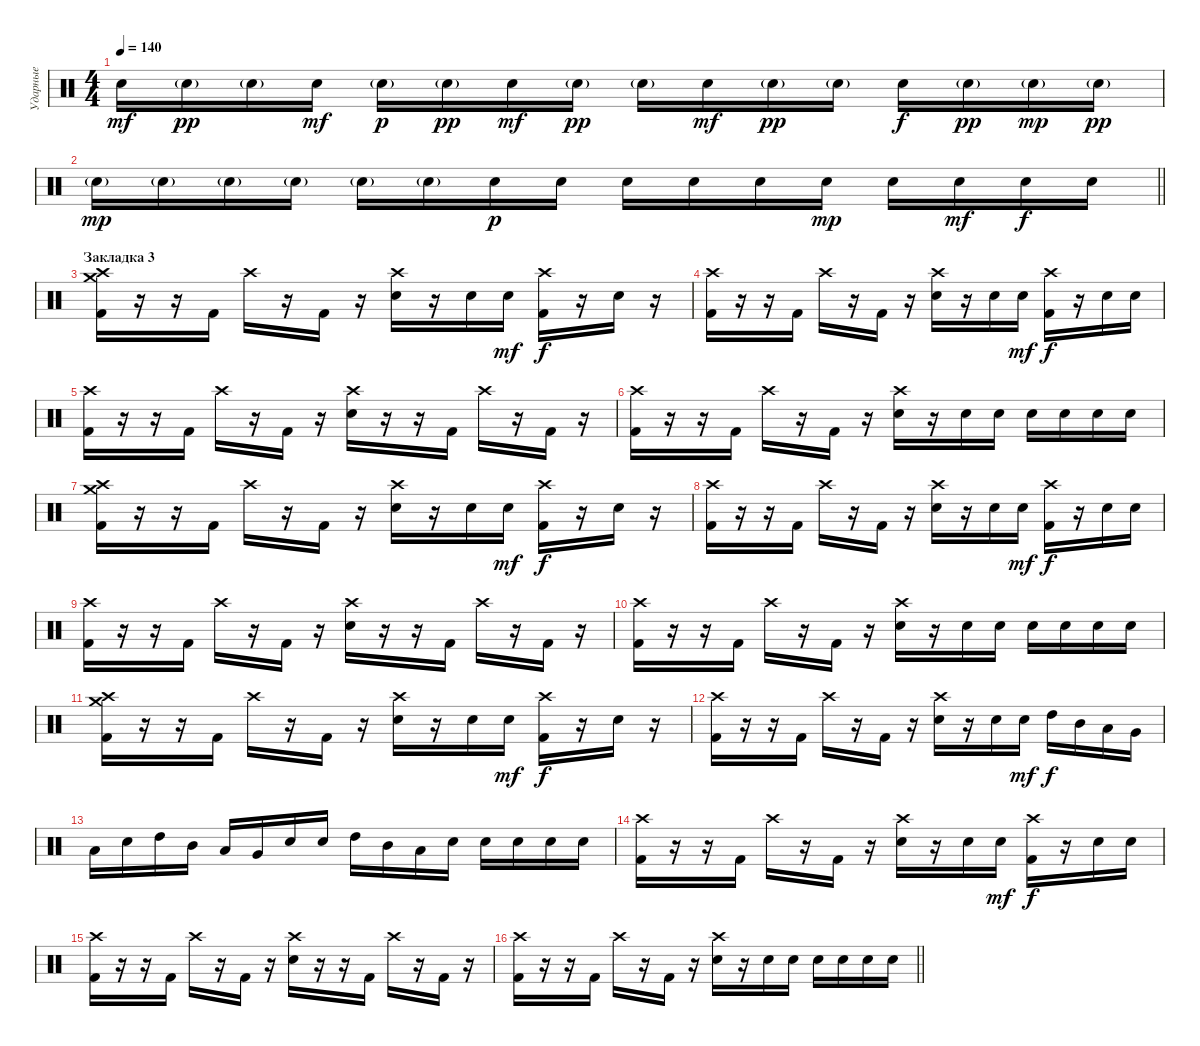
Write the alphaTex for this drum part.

\track ("Ударные" "Ударные") {instrument percussion}
\staff {score}
\articulation defaults
\ts (4 4)
\tempo 140
\clef neutral
\ks c "Electric Snare (hit)".16{dy mf} "Electric Snare (hit)"{g}.16{dy pp} "Electric Snare (hit)"{g}.16 "Electric Snare (hit)".16{dy mf} "Electric Snare (hit)"{g}.16{dy p} "Electric Snare (hit)"{g}.16{dy pp} "Electric Snare (hit)".16{dy mf} "Electric Snare (hit)"{g}.16{dy pp} "Electric Snare (hit)"{g}.16 "Electric Snare (hit)".16{dy mf} "Electric Snare (hit)"{g}.16{dy pp} "Electric Snare (hit)"{g}.16 "Electric Snare (hit)".16{dy f} "Electric Snare (hit)"{g}.16{dy pp} "Electric Snare (hit)"{g}.16{dy mp} "Electric Snare (hit)"{g}.16{dy pp}
|
\barLineRight lightlight "Electric Snare (hit)"{g}.16{dy mp} "Electric Snare (hit)"{g}.16 "Electric Snare (hit)"{g}.16 "Electric Snare (hit)"{g}.16 "Electric Snare (hit)"{g}.16 "Electric Snare (hit)"{g}.16 "Electric Snare (hit)".16{dy p} "Electric Snare (hit)".16 "Electric Snare (hit)".16 "Electric Snare (hit)".16 "Electric Snare (hit)".16 "Electric Snare (hit)".16{dy mp} "Electric Snare (hit)".16 "Electric Snare (hit)".16{dy mf} "Electric Snare (hit)".16{dy f} "Electric Snare (hit)".16
|
\section ("" "Закладка 3")
("Crash high (hit)" "Crash medium (hit)" "Kick (hit) 2").16 r.16 r.16 "Kick (hit) 2".16 "Crash high (hit)".16 r.16 "Kick (hit) 2".16 r.16 ("Crash high (hit)" "Electric Snare (hit)").16 r.16 "Electric Snare (hit)".16 "Electric Snare (hit)".16{dy mf} ("Crash high (hit)" "Kick (hit) 2").16{dy f} r.16 "Electric Snare (hit)".16 r.16 |
("Crash high (hit)" "Kick (hit) 2").16 r.16 r.16 "Kick (hit) 2".16 "Crash high (hit)".16 r.16 "Kick (hit) 2".16 r.16 ("Crash high (hit)" "Electric Snare (hit)").16 r.16 "Electric Snare (hit)".16 "Electric Snare (hit)".16{dy mf} ("Crash high (hit)" "Kick (hit) 2").16{dy f} r.16 "Electric Snare (hit)".16 "Electric Snare (hit)".16 |
("Crash high (hit)" "Kick (hit) 2").16 r.16 r.16 "Kick (hit) 2".16 "Crash high (hit)".16 r.16 "Kick (hit) 2".16 r.16 ("Crash high (hit)" "Electric Snare (hit)").16 r.16 r.16 "Kick (hit) 2".16 "Crash high (hit)".16 r.16 "Kick (hit) 2".16 r.16 |
("Crash high (hit)" "Kick (hit) 2").16 r.16 r.16 "Kick (hit) 2".16 "Crash high (hit)".16 r.16 "Kick (hit) 2".16 r.16 ("Crash high (hit)" "Electric Snare (hit)").16 r.16 "Electric Snare (hit)".16 "Electric Snare (hit)".16 "Electric Snare (hit)".16 "Electric Snare (hit)".16 "Electric Snare (hit)".16 "Electric Snare (hit)".16 |
("Crash high (hit)" "Crash medium (hit)" "Kick (hit) 2").16 r.16 r.16 "Kick (hit) 2".16 "Crash high (hit)".16 r.16 "Kick (hit) 2".16 r.16 ("Crash high (hit)" "Electric Snare (hit)").16 r.16 "Electric Snare (hit)".16 "Electric Snare (hit)".16{dy mf} ("Crash high (hit)" "Kick (hit) 2").16{dy f} r.16 "Electric Snare (hit)".16 r.16 |
("Crash high (hit)" "Kick (hit) 2").16 r.16 r.16 "Kick (hit) 2".16 "Crash high (hit)".16 r.16 "Kick (hit) 2".16 r.16 ("Crash high (hit)" "Electric Snare (hit)").16 r.16 "Electric Snare (hit)".16 "Electric Snare (hit)".16{dy mf} ("Crash high (hit)" "Kick (hit) 2").16{dy f} r.16 "Electric Snare (hit)".16 "Electric Snare (hit)".16 |
("Crash high (hit)" "Kick (hit) 2").16 r.16 r.16 "Kick (hit) 2".16 "Crash high (hit)".16 r.16 "Kick (hit) 2".16 r.16 ("Crash high (hit)" "Electric Snare (hit)").16 r.16 r.16 "Kick (hit) 2".16 "Crash high (hit)".16 r.16 "Kick (hit) 2".16 r.16 |
("Crash high (hit)" "Kick (hit) 2").16 r.16 r.16 "Kick (hit) 2".16 "Crash high (hit)".16 r.16 "Kick (hit) 2".16 r.16 ("Crash high (hit)" "Electric Snare (hit)").16 r.16 "Electric Snare (hit)".16 "Electric Snare (hit)".16 "Electric Snare (hit)".16 "Electric Snare (hit)".16 "Electric Snare (hit)".16 "Electric Snare (hit)".16 |
("Crash high (hit)" "Crash medium (hit)" "Kick (hit) 2").16 r.16 r.16 "Kick (hit) 2".16 "Crash high (hit)".16 r.16 "Kick (hit) 2".16 r.16 ("Crash high (hit)" "Electric Snare (hit)").16 r.16 "Electric Snare (hit)".16 "Electric Snare (hit)".16{dy mf} ("Crash high (hit)" "Kick (hit) 2").16{dy f} r.16 "Electric Snare (hit)".16 r.16 |
("Crash high (hit)" "Kick (hit) 2").16 r.16 r.16 "Kick (hit) 2".16 "Crash high (hit)".16 r.16 "Kick (hit) 2".16 r.16 ("Crash high (hit)" "Electric Snare (hit)").16 r.16 "Electric Snare (hit)".16 "Electric Snare (hit)".16{dy mf} "High Tom (hit)".16{dy f} "Mid Tom (hit)".16 "Low Tom (hit)".16 "Very Low Tom (hit)".16 |
"Low Floor Tom (hit)".16 "Electric Snare (hit)".16 "High Tom (hit)".16 "Mid Tom (hit)".16 "Low Tom (hit)".16 "Very Low Tom (hit)".16 "Electric Snare (hit)".16 "Electric Snare (hit)".16 "High Tom (hit)".16 "Mid Tom (hit)".16 "Low Tom (hit)".16 "Electric Snare (hit)".16 "Electric Snare (hit)".16 "Electric Snare (hit)".16 "Electric Snare (hit)".16 "Electric Snare (hit)".16 |
("Crash high (hit)" "Kick (hit) 2").16 r.16 r.16 "Kick (hit) 2".16 "Crash high (hit)".16 r.16 "Kick (hit) 2".16 r.16 ("Crash high (hit)" "Electric Snare (hit)").16 r.16 "Electric Snare (hit)".16 "Electric Snare (hit)".16{dy mf} ("Crash high (hit)" "Kick (hit) 2").16{dy f} r.16 "Electric Snare (hit)".16 "Electric Snare (hit)".16 |
("Crash high (hit)" "Kick (hit) 2").16 r.16 r.16 "Kick (hit) 2".16 "Crash high (hit)".16 r.16 "Kick (hit) 2".16 r.16 ("Crash high (hit)" "Electric Snare (hit)").16 r.16 r.16 "Kick (hit) 2".16 "Crash high (hit)".16 r.16 "Kick (hit) 2".16 r.16 |
\barLineRight lightlight
("Crash high (hit)" "Kick (hit) 2").16 r.16 r.16 "Kick (hit) 2".16 "Crash high (hit)".16 r.16 "Kick (hit) 2".16 r.16 ("Crash high (hit)" "Electric Snare (hit)").16 r.16 "Electric Snare (hit)".16 "Electric Snare (hit)".16 "Electric Snare (hit)".16 "Electric Snare (hit)".16 "Electric Snare (hit)".16 "Electric Snare (hit)".16
